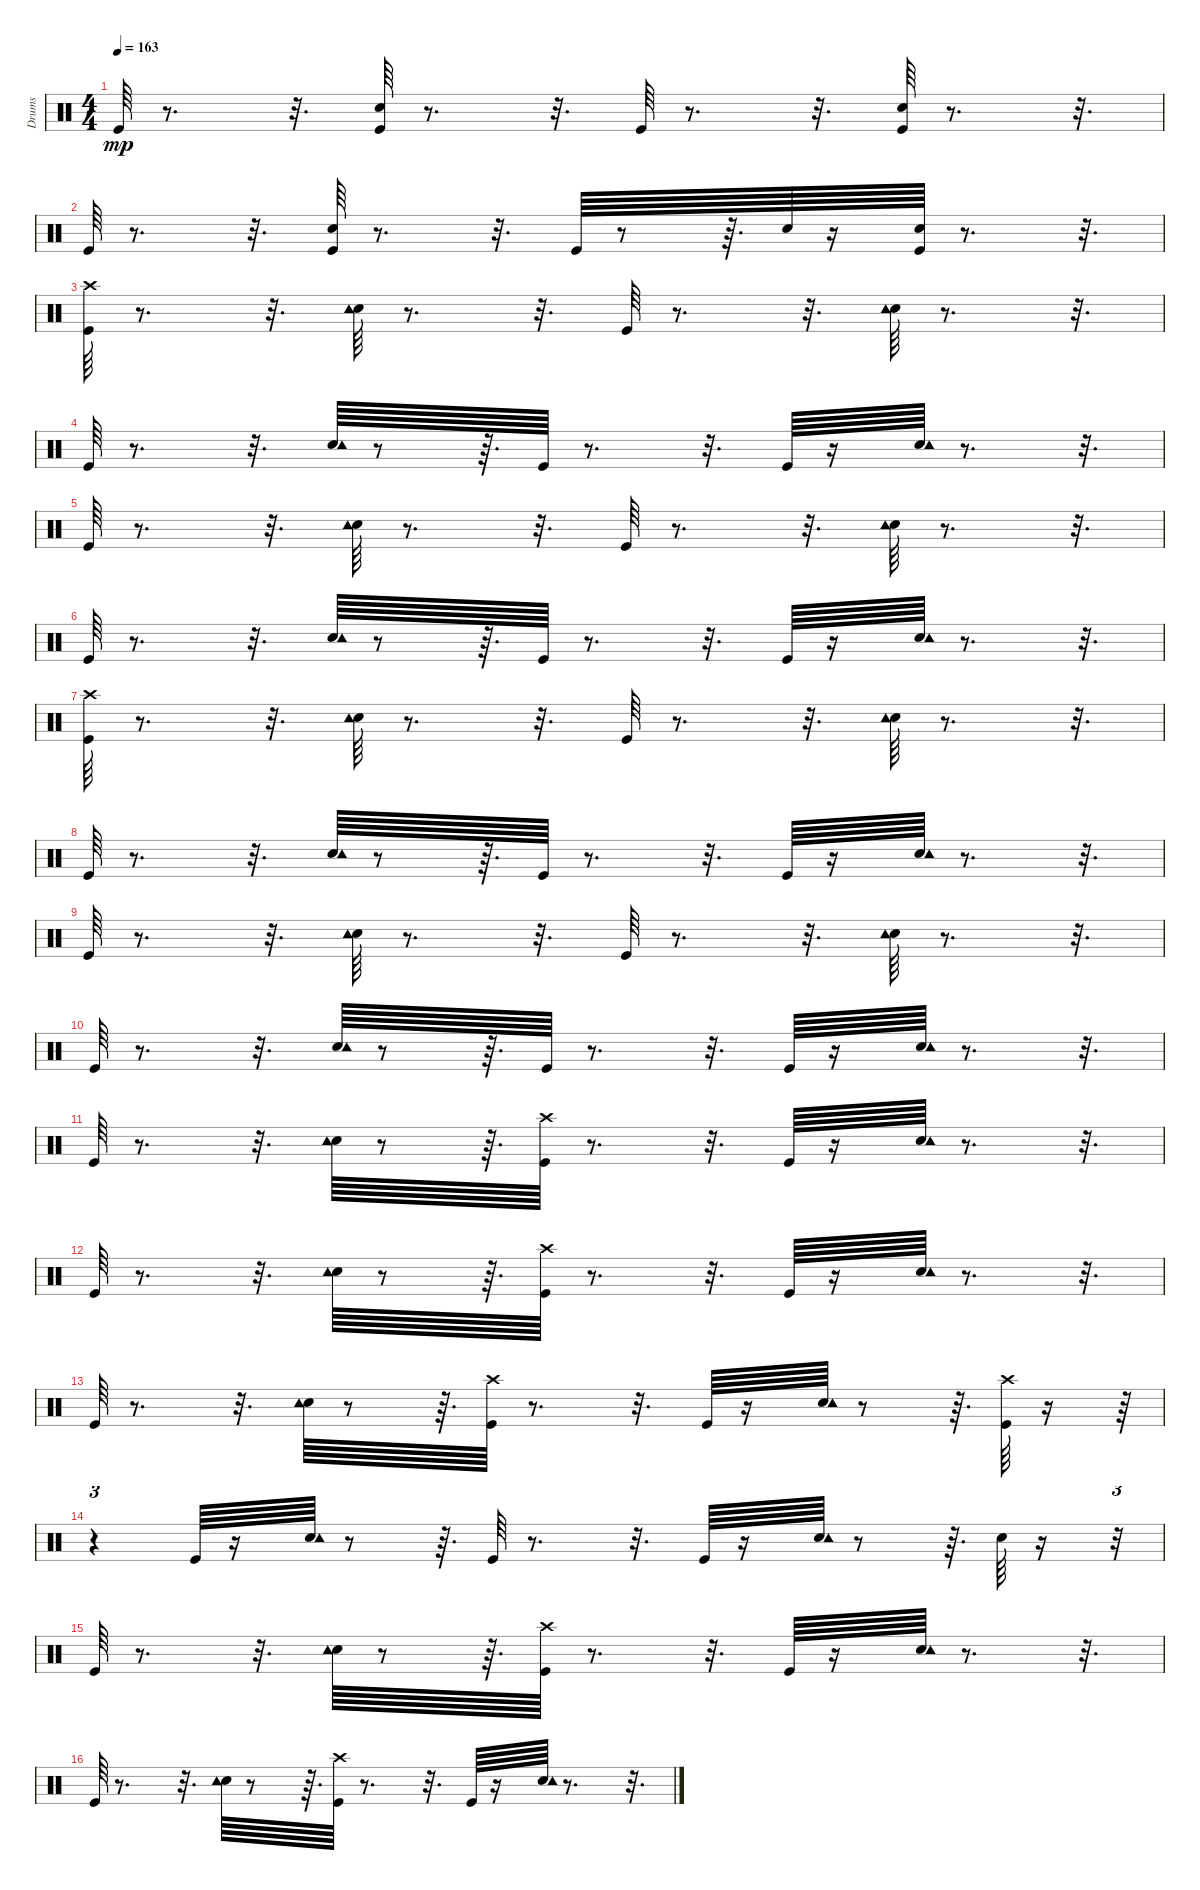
\track ("Drums" "Drums") {instrument percussion}
\staff {score}
\articulation defaults
\ts (4 4)
\tempo 163
\clef neutral
\ks c "Kick (hit)".64{dy mp}
r.8{d} r.32{d} ("Kick (hit)" "Hand Clap (hit)").64 r.8{d} r.32{d} "Kick (hit)".64 r.8{d} r.32{d} ("Kick (hit)" "Hand Clap (hit)").64 r.8{d} r.32{d} |
"Kick (hit)".64 r.8{d} r.32{d} ("Kick (hit)" "Hand Clap (hit)").64 r.8{d} r.32{d} "Kick (hit)".64 r.8 r.64{d} "Snare (hit) 2".64 r.16 ("Kick (hit)" "Snare (hit) 2").64 r.8{d} r.32{d} |
("Kick (hit)" "Crash high (hit)").64 r.8{d} r.32{d} ("Snare (hit) 2" "Tambourine (hit)").64 r.8{d} r.32{d} "Kick (hit)".64 r.8{d} r.32{d} ("Snare (hit) 2" "Tambourine (hit)").64 r.8{d} r.32{d} |
"Kick (hit)".64 r.8{d} r.32{d} ("Snare (hit) 2" "Tambourine (hit)").64 r.8 r.64{d} "Kick (hit)".64 r.8{d} r.32{d} "Kick (hit)".64 r.16 ("Snare (hit) 2" "Tambourine (hit)").64 r.8{d} r.32{d} |
"Kick (hit)".64 r.8{d} r.32{d} ("Snare (hit) 2" "Tambourine (hit)").64 r.8{d} r.32{d} "Kick (hit)".64 r.8{d} r.32{d} ("Snare (hit) 2" "Tambourine (hit)").64 r.8{d} r.32{d} |
"Kick (hit)".64 r.8{d} r.32{d} ("Snare (hit) 2" "Tambourine (hit)").64 r.8 r.64{d} "Kick (hit)".64 r.8{d} r.32{d} "Kick (hit)".64 r.16 ("Snare (hit) 2" "Tambourine (hit)").64 r.8{d} r.32{d} |
("Kick (hit)" "Crash high (hit)").64 r.8{d} r.32{d} ("Snare (hit) 2" "Tambourine (hit)").64 r.8{d} r.32{d} "Kick (hit)".64 r.8{d} r.32{d} ("Snare (hit) 2" "Tambourine (hit)").64 r.8{d} r.32{d} |
"Kick (hit)".64 r.8{d} r.32{d} ("Snare (hit) 2" "Tambourine (hit)").64 r.8 r.64{d} "Kick (hit)".64 r.8{d} r.32{d} "Kick (hit)".64 r.16 ("Snare (hit) 2" "Tambourine (hit)").64 r.8{d} r.32{d} |
"Kick (hit)".64 r.8{d} r.32{d} ("Snare (hit) 2" "Tambourine (hit)").64 r.8{d} r.32{d} "Kick (hit)".64 r.8{d} r.32{d} ("Snare (hit) 2" "Tambourine (hit)").64 r.8{d} r.32{d} |
"Kick (hit)".64 r.8{d} r.32{d} ("Snare (hit) 2" "Tambourine (hit)").64 r.8 r.64{d} "Kick (hit)".64 r.8{d} r.32{d} "Kick (hit)".64 r.16 ("Snare (hit) 2" "Tambourine (hit)").64 r.8{d} r.32{d} |
"Kick (hit)".64 r.8{d} r.32{d} ("Snare (hit) 2" "Tambourine (hit)").64 r.8 r.64{d} ("Kick (hit)" "Crash high (hit)").64 r.8{d} r.32{d} "Kick (hit)".64 r.16 ("Snare (hit) 2" "Tambourine (hit)").64 r.8{d} r.32{d} |
"Kick (hit)".64 r.8{d} r.32{d} ("Snare (hit) 2" "Tambourine (hit)").64 r.8 r.64{d} ("Kick (hit)" "Crash high (hit)").64 r.8{d} r.32{d} "Kick (hit)".64 r.16 ("Snare (hit) 2" "Tambourine (hit)").64 r.8{d} r.32{d} |
"Kick (hit)".64 r.8{d} r.32{d} ("Snare (hit) 2" "Tambourine (hit)").64 r.8 r.64{d} ("Kick (hit)" "Crash high (hit)").64 r.8{d} r.32{d} "Kick (hit)".64 r.16 ("Snare (hit) 2" "Tambourine (hit)").64 r.8 r.64{d} ("Kick (hit)" "Crash high (hit)").64 r.16 r.64 |
r.4{tu (3 2)} "Kick (hit)".64 r.16 ("Snare (hit) 2" "Tambourine (hit)").64 r.8 r.64{d} "Kick (hit)".64 r.8{d} r.32{d} "Kick (hit)".64 r.16 ("Snare (hit) 2" "Tambourine (hit)").64 r.8 r.64{d} "Snare (hit) 2".64 r.16 r.32{tu (3 2)} |
"Kick (hit)".64 r.8{d} r.32{d} ("Snare (hit) 2" "Tambourine (hit)").64 r.8 r.64{d} ("Kick (hit)" "Crash high (hit)").64 r.8{d} r.32{d} "Kick (hit)".64 r.16 ("Snare (hit) 2" "Tambourine (hit)").64 r.8{d} r.32{d} |
"Kick (hit)".64 r.8{d} r.32{d} ("Snare (hit) 2" "Tambourine (hit)").64 r.8 r.64{d} ("Kick (hit)" "Crash high (hit)").64 r.8{d} r.32{d} "Kick (hit)".64 r.16 ("Snare (hit) 2" "Tambourine (hit)").64 r.8{d} r.32{d}
